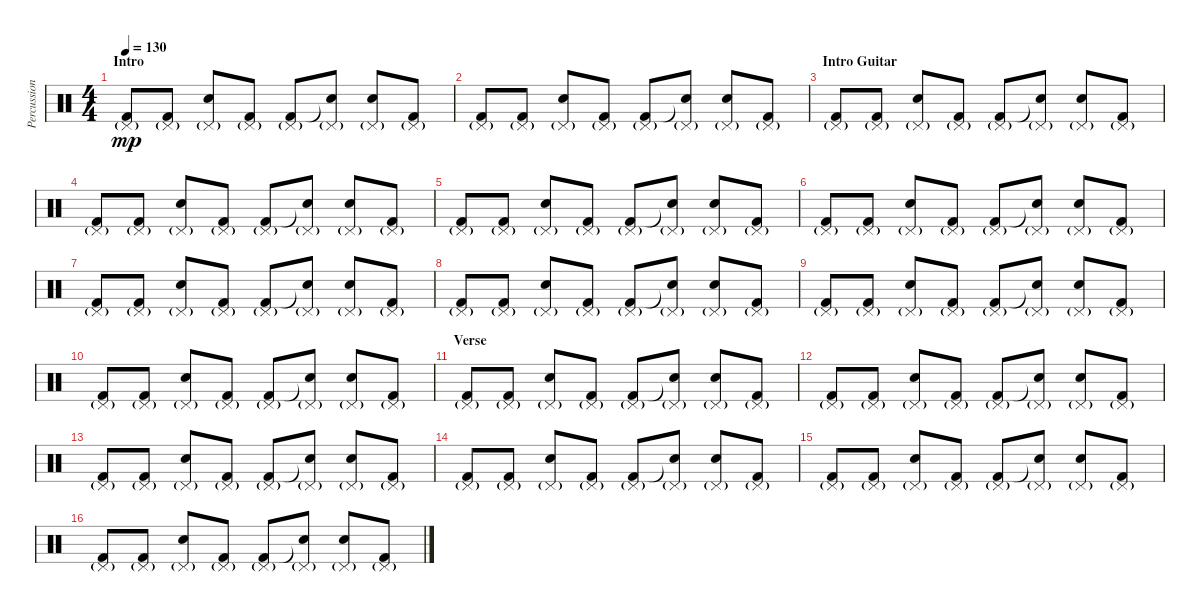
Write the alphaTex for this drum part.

\track ("Percussioni" "Percussion") {instrument percussion}
\staff {score}
\articulation defaults
\ts (4 4)
\section ("" "Intro")
\tempo 130
\clef neutral
\ks c
("Pedal Hi-Hat (hit)"{g} "Kick (hit) 2").8{dy mp} ("Pedal Hi-Hat (hit)"{g} "Kick (hit) 2").8 ("Pedal Hi-Hat (hit)"{g} "Snare (hit) 2").8 ("Pedal Hi-Hat (hit)"{g} "Kick (hit) 2").8 ("Pedal Hi-Hat (hit)"{g} "Kick (hit) 2").8 ("Pedal Hi-Hat (hit)"{g} "Snare (hit)"{t}).8 ("Pedal Hi-Hat (hit)"{g} "Snare (hit) 2").8 ("Pedal Hi-Hat (hit)"{g} "Kick (hit) 2").8 |
("Pedal Hi-Hat (hit)"{g} "Kick (hit) 2").8 ("Pedal Hi-Hat (hit)"{g} "Kick (hit) 2").8 ("Pedal Hi-Hat (hit)"{g} "Snare (hit) 2").8 ("Pedal Hi-Hat (hit)"{g} "Kick (hit) 2").8 ("Pedal Hi-Hat (hit)"{g} "Kick (hit) 2").8 ("Pedal Hi-Hat (hit)"{g} "Snare (hit)"{t}).8 ("Pedal Hi-Hat (hit)"{g} "Snare (hit) 2").8 ("Pedal Hi-Hat (hit)"{g} "Kick (hit) 2").8 |
\section ("" "Intro Guitar")
("Pedal Hi-Hat (hit)"{g} "Kick (hit) 2").8 ("Pedal Hi-Hat (hit)"{g} "Kick (hit) 2").8 ("Pedal Hi-Hat (hit)"{g} "Snare (hit) 2").8 ("Pedal Hi-Hat (hit)"{g} "Kick (hit) 2").8 ("Pedal Hi-Hat (hit)"{g} "Kick (hit) 2").8 ("Pedal Hi-Hat (hit)"{g} "Snare (hit)"{t}).8 ("Pedal Hi-Hat (hit)"{g} "Snare (hit) 2").8 ("Pedal Hi-Hat (hit)"{g} "Kick (hit) 2").8 |
("Pedal Hi-Hat (hit)"{g} "Kick (hit) 2").8 ("Pedal Hi-Hat (hit)"{g} "Kick (hit) 2").8 ("Pedal Hi-Hat (hit)"{g} "Snare (hit) 2").8 ("Pedal Hi-Hat (hit)"{g} "Kick (hit) 2").8 ("Pedal Hi-Hat (hit)"{g} "Kick (hit) 2").8 ("Pedal Hi-Hat (hit)"{g} "Snare (hit)"{t}).8 ("Pedal Hi-Hat (hit)"{g} "Snare (hit) 2").8 ("Pedal Hi-Hat (hit)"{g} "Kick (hit) 2").8 |
("Pedal Hi-Hat (hit)"{g} "Kick (hit) 2").8 ("Pedal Hi-Hat (hit)"{g} "Kick (hit) 2").8 ("Pedal Hi-Hat (hit)"{g} "Snare (hit) 2").8 ("Pedal Hi-Hat (hit)"{g} "Kick (hit) 2").8 ("Pedal Hi-Hat (hit)"{g} "Kick (hit) 2").8 ("Pedal Hi-Hat (hit)"{g} "Snare (hit)"{t}).8 ("Pedal Hi-Hat (hit)"{g} "Snare (hit) 2").8 ("Pedal Hi-Hat (hit)"{g} "Kick (hit) 2").8 |
("Pedal Hi-Hat (hit)"{g} "Kick (hit) 2").8 ("Pedal Hi-Hat (hit)"{g} "Kick (hit) 2").8 ("Pedal Hi-Hat (hit)"{g} "Snare (hit) 2").8 ("Pedal Hi-Hat (hit)"{g} "Kick (hit) 2").8 ("Pedal Hi-Hat (hit)"{g} "Kick (hit) 2").8 ("Pedal Hi-Hat (hit)"{g} "Snare (hit)"{t}).8 ("Pedal Hi-Hat (hit)"{g} "Snare (hit) 2").8 ("Pedal Hi-Hat (hit)"{g} "Kick (hit) 2").8 |
("Pedal Hi-Hat (hit)"{g} "Kick (hit) 2").8 ("Pedal Hi-Hat (hit)"{g} "Kick (hit) 2").8 ("Pedal Hi-Hat (hit)"{g} "Snare (hit) 2").8 ("Pedal Hi-Hat (hit)"{g} "Kick (hit) 2").8 ("Pedal Hi-Hat (hit)"{g} "Kick (hit) 2").8 ("Pedal Hi-Hat (hit)"{g} "Snare (hit)"{t}).8 ("Pedal Hi-Hat (hit)"{g} "Snare (hit) 2").8 ("Pedal Hi-Hat (hit)"{g} "Kick (hit) 2").8 |
("Pedal Hi-Hat (hit)"{g} "Kick (hit) 2").8 ("Pedal Hi-Hat (hit)"{g} "Kick (hit) 2").8 ("Pedal Hi-Hat (hit)"{g} "Snare (hit) 2").8 ("Pedal Hi-Hat (hit)"{g} "Kick (hit) 2").8 ("Pedal Hi-Hat (hit)"{g} "Kick (hit) 2").8 ("Pedal Hi-Hat (hit)"{g} "Snare (hit)"{t}).8 ("Pedal Hi-Hat (hit)"{g} "Snare (hit) 2").8 ("Pedal Hi-Hat (hit)"{g} "Kick (hit) 2").8 |
("Pedal Hi-Hat (hit)"{g} "Kick (hit) 2").8 ("Pedal Hi-Hat (hit)"{g} "Kick (hit) 2").8 ("Pedal Hi-Hat (hit)"{g} "Snare (hit) 2").8 ("Pedal Hi-Hat (hit)"{g} "Kick (hit) 2").8 ("Pedal Hi-Hat (hit)"{g} "Kick (hit) 2").8 ("Pedal Hi-Hat (hit)"{g} "Snare (hit)"{t}).8 ("Pedal Hi-Hat (hit)"{g} "Snare (hit) 2").8 ("Pedal Hi-Hat (hit)"{g} "Kick (hit) 2").8 |
("Pedal Hi-Hat (hit)"{g} "Kick (hit) 2").8 ("Pedal Hi-Hat (hit)"{g} "Kick (hit) 2").8 ("Pedal Hi-Hat (hit)"{g} "Snare (hit) 2").8 ("Pedal Hi-Hat (hit)"{g} "Kick (hit) 2").8 ("Pedal Hi-Hat (hit)"{g} "Kick (hit) 2").8 ("Pedal Hi-Hat (hit)"{g} "Snare (hit)"{t}).8 ("Pedal Hi-Hat (hit)"{g} "Snare (hit) 2").8 ("Pedal Hi-Hat (hit)"{g} "Kick (hit) 2").8 |
\section ("" "Verse")
("Pedal Hi-Hat (hit)"{g} "Kick (hit) 2").8 ("Pedal Hi-Hat (hit)"{g} "Kick (hit) 2").8 ("Pedal Hi-Hat (hit)"{g} "Snare (hit) 2").8 ("Pedal Hi-Hat (hit)"{g} "Kick (hit) 2").8 ("Pedal Hi-Hat (hit)"{g} "Kick (hit) 2").8 ("Pedal Hi-Hat (hit)"{g} "Snare (hit)"{t}).8 ("Pedal Hi-Hat (hit)"{g} "Snare (hit) 2").8 ("Pedal Hi-Hat (hit)"{g} "Kick (hit) 2").8 |
("Pedal Hi-Hat (hit)"{g} "Kick (hit) 2").8 ("Pedal Hi-Hat (hit)"{g} "Kick (hit) 2").8 ("Pedal Hi-Hat (hit)"{g} "Snare (hit) 2").8 ("Pedal Hi-Hat (hit)"{g} "Kick (hit) 2").8 ("Pedal Hi-Hat (hit)"{g} "Kick (hit) 2").8 ("Pedal Hi-Hat (hit)"{g} "Snare (hit)"{t}).8 ("Pedal Hi-Hat (hit)"{g} "Snare (hit) 2").8 ("Pedal Hi-Hat (hit)"{g} "Kick (hit) 2").8 |
("Pedal Hi-Hat (hit)"{g} "Kick (hit) 2").8 ("Pedal Hi-Hat (hit)"{g} "Kick (hit) 2").8 ("Pedal Hi-Hat (hit)"{g} "Snare (hit) 2").8 ("Pedal Hi-Hat (hit)"{g} "Kick (hit) 2").8 ("Pedal Hi-Hat (hit)"{g} "Kick (hit) 2").8 ("Pedal Hi-Hat (hit)"{g} "Snare (hit)"{t}).8 ("Pedal Hi-Hat (hit)"{g} "Snare (hit) 2").8 ("Pedal Hi-Hat (hit)"{g} "Kick (hit) 2").8 |
("Pedal Hi-Hat (hit)"{g} "Kick (hit) 2").8 ("Pedal Hi-Hat (hit)"{g} "Kick (hit) 2").8 ("Pedal Hi-Hat (hit)"{g} "Snare (hit) 2").8 ("Pedal Hi-Hat (hit)"{g} "Kick (hit) 2").8 ("Pedal Hi-Hat (hit)"{g} "Kick (hit) 2").8 ("Pedal Hi-Hat (hit)"{g} "Snare (hit)"{t}).8 ("Pedal Hi-Hat (hit)"{g} "Snare (hit) 2").8 ("Pedal Hi-Hat (hit)"{g} "Kick (hit) 2").8 |
("Pedal Hi-Hat (hit)"{g} "Kick (hit) 2").8 ("Pedal Hi-Hat (hit)"{g} "Kick (hit) 2").8 ("Pedal Hi-Hat (hit)"{g} "Snare (hit) 2").8 ("Pedal Hi-Hat (hit)"{g} "Kick (hit) 2").8 ("Pedal Hi-Hat (hit)"{g} "Kick (hit) 2").8 ("Pedal Hi-Hat (hit)"{g} "Snare (hit)"{t}).8 ("Pedal Hi-Hat (hit)"{g} "Snare (hit) 2").8 ("Pedal Hi-Hat (hit)"{g} "Kick (hit) 2").8 |
("Pedal Hi-Hat (hit)"{g} "Kick (hit) 2").8 ("Pedal Hi-Hat (hit)"{g} "Kick (hit) 2").8 ("Pedal Hi-Hat (hit)"{g} "Snare (hit) 2").8 ("Pedal Hi-Hat (hit)"{g} "Kick (hit) 2").8 ("Pedal Hi-Hat (hit)"{g} "Kick (hit) 2").8 ("Pedal Hi-Hat (hit)"{g} "Snare (hit)"{t}).8 ("Pedal Hi-Hat (hit)"{g} "Snare (hit) 2").8 ("Pedal Hi-Hat (hit)"{g} "Kick (hit) 2").8
